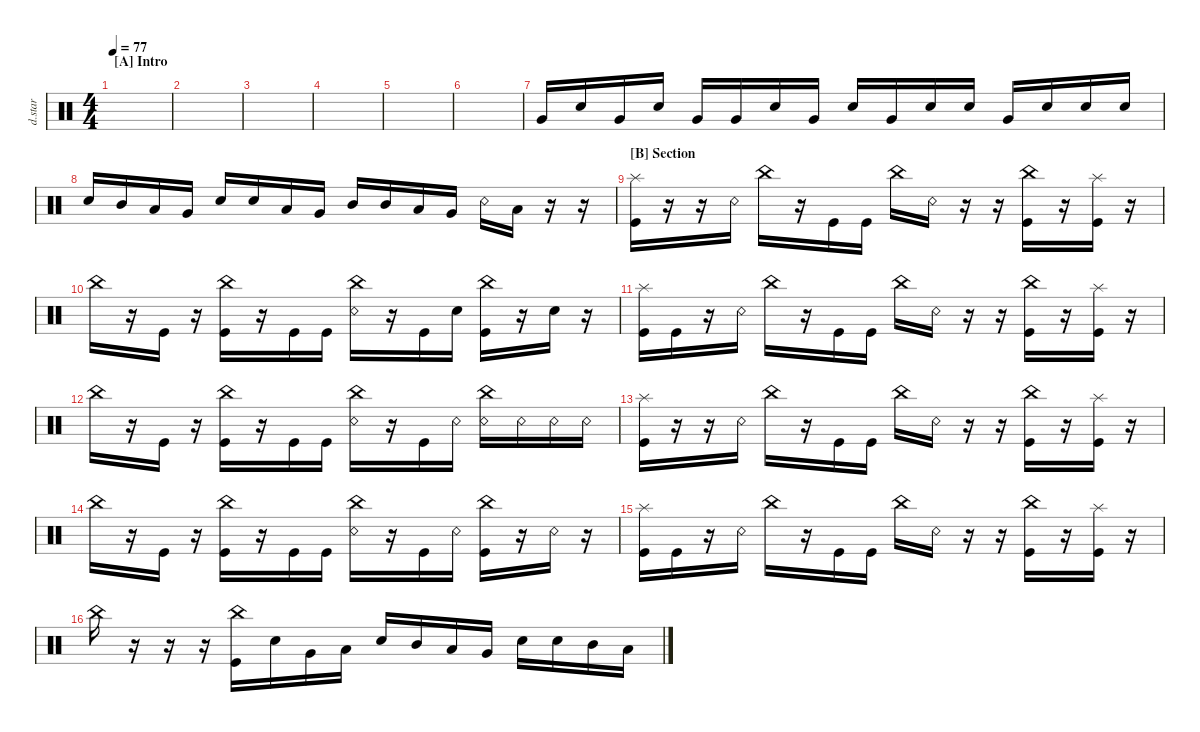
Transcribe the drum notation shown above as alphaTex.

\defaultSystemsLayout 4
\hideDynamics
\bracketExtendMode nobrackets
\otherSystemsTrackNameOrientation horizontal
\track ("Drumkit Star" "d.star") {instrument percussion}
\staff {score}
\articulation defaults
\ts (4 4)
\section ("A" "Intro")
\tempo 77
\clef neutral
\ks c
|
|
|
|
|
|
"Very Low Tom (hit)".16 "Snare (hit) 2".16 "Very Low Tom (hit)".16 "Snare (hit) 2".16 "Very Low Tom (hit)".16 "Very Low Tom (hit)".16 "Snare (hit) 2".16 "Very Low Tom (hit)".16 "Snare (hit) 2".16 "Very Low Tom (hit)".16 "Snare (hit) 2".16 "Snare (hit) 2".16 "Very Low Tom (hit)".16 "Snare (hit) 2".16 "Snare (hit) 2".16 "Snare (hit) 2".16 |
"Snare (hit) 2".16 "Mid Tom (hit)".16 "Low Tom (hit)".16 "Very Low Tom (hit)".16 "Snare (hit) 2".16 "Snare (hit) 2".16 "Low Tom (hit)".16 "Very Low Tom (hit)".16 "Mid Tom (hit)".16 "Mid Tom (hit)".16 "Low Tom (hit)".16 "Very Low Tom (hit)".16 "Snare (rim shot)".16 "Low Tom (hit)".16 r.16 r.16 |
\section ("B" "Section")
("Kick (hit)" "Splash (hit)").16 r.16 r.16 "Snare (rim shot)".16 "China (hit)".16 r.16 "Kick (hit)".16 "Kick (hit)".16 "China (hit)".16 "Snare (rim shot)".16 r.16 r.16 ("Kick (hit)" "China (hit)").16 r.16 ("Kick (hit)" "Splash (hit)").16 r.16 |
"China (hit)".16 r.16 "Kick (hit)".16 r.16 ("Kick (hit)" "China (hit)").16 r.16 "Kick (hit)".16 "Kick (hit)".16 ("Snare (rim shot)" "China (hit)").16 r.16 "Kick (hit)".16 "Snare (hit) 2".16 ("Kick (hit)" "China (hit)").16 r.16 "Snare (hit) 2".16 r.16 |
("Kick (hit)" "Splash (hit)").16 "Kick (hit)".16 r.16 "Snare (rim shot)".16 "China (hit)".16 r.16 "Kick (hit)".16 "Kick (hit)".16 "China (hit)".16 "Snare (rim shot)".16 r.16 r.16 ("Kick (hit)" "China (hit)").16 r.16 ("Kick (hit)" "Splash (hit)").16 r.16 |
"China (hit)".16 r.16 "Kick (hit)".16 r.16 ("Kick (hit)" "China (hit)").16 r.16 "Kick (hit)".16 "Kick (hit)".16 ("Snare (rim shot)" "China (hit)").16 r.16 "Kick (hit)".16 "Snare (rim shot)".16 ("Snare (rim shot)" "China (hit)").16 "Snare (rim shot)".16 "Snare (rim shot)".16 "Snare (rim shot)".16 |
("Kick (hit)" "Splash (hit)").16 r.16 r.16 "Snare (rim shot)".16 "China (hit)".16 r.16 "Kick (hit)".16 "Kick (hit)".16 "China (hit)".16 "Snare (rim shot)".16 r.16 r.16 ("Kick (hit)" "China (hit)").16 r.16 ("Kick (hit)" "Splash (hit)").16 r.16 |
"China (hit)".16 r.16 "Kick (hit)".16 r.16 ("Kick (hit)" "China (hit)").16 r.16 "Kick (hit)".16 "Kick (hit)".16 ("Snare (rim shot)" "China (hit)").16 r.16 "Kick (hit)".16 "Snare (rim shot)".16 ("Kick (hit)" "China (hit)").16 r.16 "Snare (rim shot)".16 r.16 |
("Kick (hit)" "Splash (hit)").16 "Kick (hit)".16 r.16 "Snare (rim shot)".16 "China (hit)".16 r.16 "Kick (hit)".16 "Kick (hit)".16 "China (hit)".16 "Snare (rim shot)".16 r.16 r.16 ("Kick (hit)" "China (hit)").16 r.16 ("Kick (hit)" "Splash (hit)").16 r.16 |
"China (hit)".16 r.16 r.16 r.16 ("China (hit)" "Kick (hit)").16 "Snare (hit) 2".16 "Very Low Tom (hit)".16 "Low Tom (hit)".16 "Snare (hit) 2".16 "Mid Tom (hit)".16 "Low Tom (hit)".16 "Very Low Tom (hit)".16 "Snare (hit) 2".16 "Snare (hit) 2".16 "Mid Tom (hit)".16 "Low Tom (hit)".16
